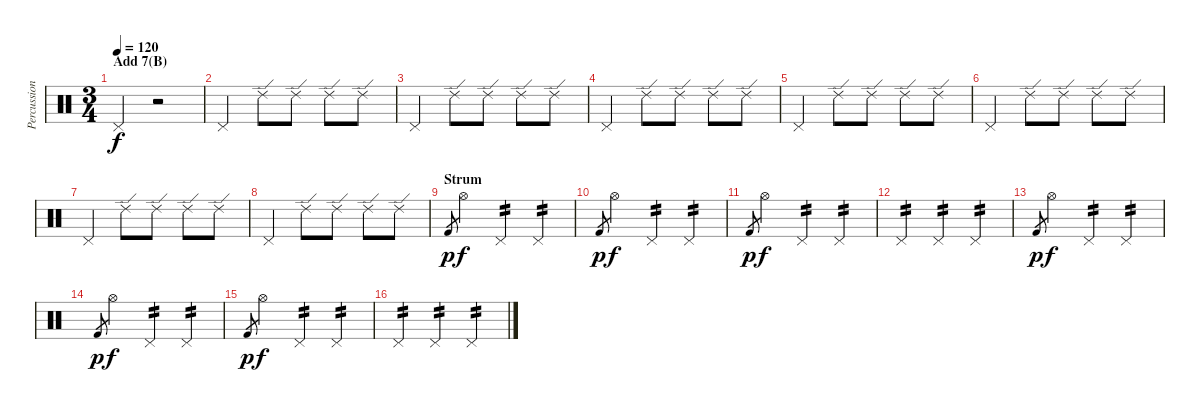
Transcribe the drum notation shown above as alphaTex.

\track ("Percussion" "Percussion") {instrument percussion}
\staff {score}
\articulation defaults
\ts (3 4)
\section ("" "Add 7(B)")
\tempo 120
\clef neutral
\ks c "Pedal Hi-Hat (hit)".4{dy f}
r.2 |
"Pedal Hi-Hat (hit)"{tr (46 16)}.4 "Ride (edge) 2".8 "Ride (edge) 2".8 "Ride (edge) 2".8 "Ride (edge) 2".8 |
"Pedal Hi-Hat (hit)"{tr (46 16)}.4 "Ride (edge) 2".8 "Ride (edge) 2".8 "Ride (edge) 2".8 "Ride (edge) 2".8 |
"Pedal Hi-Hat (hit)"{tr (46 16)}.4 "Ride (edge) 2".8 "Ride (edge) 2".8 "Ride (edge) 2".8 "Ride (edge) 2".8 |
"Pedal Hi-Hat (hit)"{tr (46 16)}.4 "Ride (edge) 2".8 "Ride (edge) 2".8 "Ride (edge) 2".8 "Ride (edge) 2".8 |
"Pedal Hi-Hat (hit)"{tr (46 16)}.4 "Ride (edge) 2".8 "Ride (edge) 2".8 "Ride (edge) 2".8 "Ride (edge) 2".8 |
"Pedal Hi-Hat (hit)"{tr (46 16)}.4 "Ride (edge) 2".8 "Ride (edge) 2".8 "Ride (edge) 2".8 "Ride (edge) 2".8 |
"Pedal Hi-Hat (hit)"{tr (46 16)}.4 "Ride (edge) 2".8 "Ride (edge) 2".8 "Ride (edge) 2".8 "Ride (edge) 2".8 |
\section ("" "Strum")
"Kick (hit) 2".8{gr dy p} "Hi-Hat (open)".4{dy f} "Pedal Hi-Hat (hit)".4{tp 2} "Pedal Hi-Hat (hit)".4{tp 2} |
"Kick (hit) 2".8{gr dy p} "Hi-Hat (open)".4{dy f} "Pedal Hi-Hat (hit)".4{tp 2} "Pedal Hi-Hat (hit)".4{tp 2} |
"Kick (hit) 2".8{gr dy p} "Hi-Hat (open)".4{dy f} "Pedal Hi-Hat (hit)".4{tp 2} "Pedal Hi-Hat (hit)".4{tp 2} |
"Pedal Hi-Hat (hit)".4{tp 2} "Pedal Hi-Hat (hit)".4{tp 2} "Pedal Hi-Hat (hit)".4{tp 2} |
"Kick (hit) 2".8{gr dy p} "Hi-Hat (open)".4{dy f} "Pedal Hi-Hat (hit)".4{tp 2} "Pedal Hi-Hat (hit)".4{tp 2} |
"Kick (hit) 2".8{gr dy p} "Hi-Hat (open)".4{dy f} "Pedal Hi-Hat (hit)".4{tp 2} "Pedal Hi-Hat (hit)".4{tp 2} |
"Kick (hit) 2".8{gr dy p} "Hi-Hat (open)".4{dy f} "Pedal Hi-Hat (hit)".4{tp 2} "Pedal Hi-Hat (hit)".4{tp 2} |
"Pedal Hi-Hat (hit)".4{tp 2} "Pedal Hi-Hat (hit)".4{tp 2} "Pedal Hi-Hat (hit)".4{tp 2}
